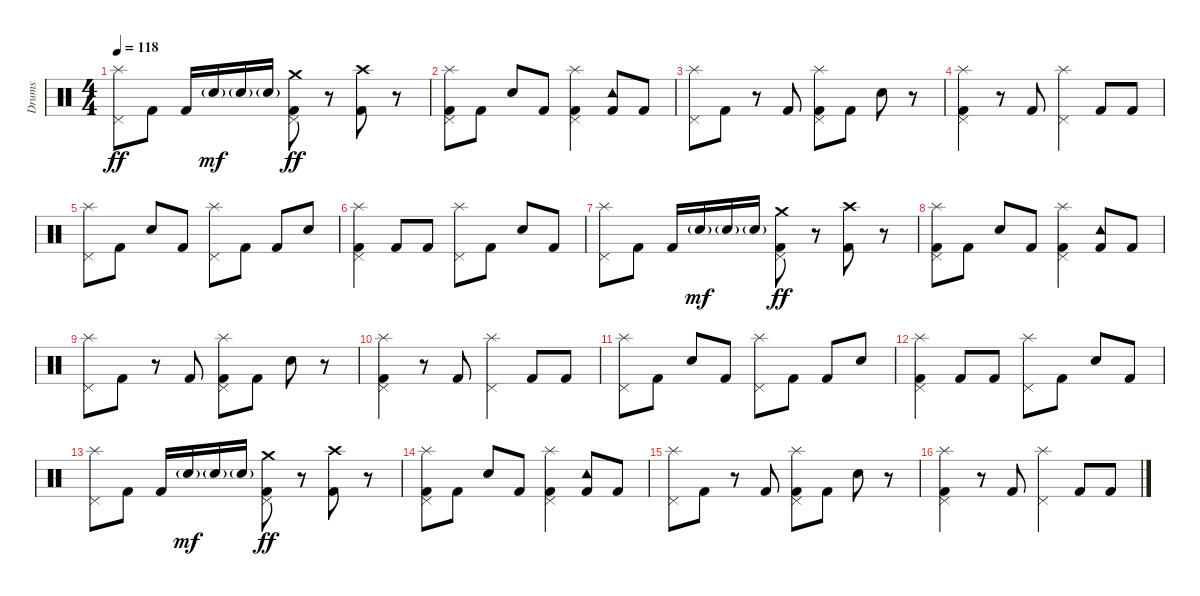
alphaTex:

\track ("Drums" "Drums") {instrument percussion}
\staff {score}
\articulation defaults
\ts (4 4)
\tempo 118
\clef neutral
\ks c
("Splash (hit)" "Pedal Hi-Hat (hit)").8{dy ff} "Kick (hit) 2".8 "Kick (hit) 2".16 "Electric Snare (hit)"{g}.16{dy mf} "Electric Snare (hit)"{g}.16 "Electric Snare (hit)"{g}.16 ("Crash medium (hit)" "Pedal Hi-Hat (hit)" "Kick (hit) 2").8{dy ff} r.8 ("Crash high (hit)" "Kick (hit) 2").8 r.8 |
("Splash (hit)" "Pedal Hi-Hat (hit)" "Kick (hit) 2").8 "Kick (hit) 2".8 "Electric Snare (hit)".8 "Kick (hit) 2".8 ("Splash (hit)" "Pedal Hi-Hat (hit)" "Kick (hit) 2").4 ("Tambourine (hit)" "Kick (hit) 2").8 "Kick (hit) 2".8 |
("Splash (hit)" "Pedal Hi-Hat (hit)").8 "Kick (hit) 2".8 r.8 "Kick (hit) 2".8 ("Splash (hit)" "Pedal Hi-Hat (hit)" "Kick (hit) 2").8 "Kick (hit) 2".8 "Electric Snare (hit)".8 r.8 |
("Splash (hit)" "Pedal Hi-Hat (hit)" "Kick (hit) 2").4 r.8 "Kick (hit) 2".8 ("Splash (hit)" "Pedal Hi-Hat (hit)").4 "Kick (hit) 2".8 "Kick (hit) 2".8 |
("Splash (hit)" "Pedal Hi-Hat (hit)").8 "Kick (hit) 2".8 "Electric Snare (hit)".8 "Kick (hit) 2".8 ("Splash (hit)" "Pedal Hi-Hat (hit)").8 "Kick (hit) 2".8 "Kick (hit) 2".8 "Electric Snare (hit)".8 |
("Splash (hit)" "Pedal Hi-Hat (hit)" "Kick (hit) 2").4 "Kick (hit) 2".8 "Kick (hit) 2".8 ("Splash (hit)" "Pedal Hi-Hat (hit)").8 "Kick (hit) 2".8 "Electric Snare (hit)".8 "Kick (hit) 2".8 |
("Splash (hit)" "Pedal Hi-Hat (hit)").8 "Kick (hit) 2".8 "Kick (hit) 2".16 "Electric Snare (hit)"{g}.16{dy mf} "Electric Snare (hit)"{g}.16 "Electric Snare (hit)"{g}.16 ("Crash medium (hit)" "Pedal Hi-Hat (hit)" "Kick (hit) 2").8{dy ff} r.8 ("Crash high (hit)" "Kick (hit) 2").8 r.8 |
("Splash (hit)" "Pedal Hi-Hat (hit)" "Kick (hit) 2").8 "Kick (hit) 2".8 "Electric Snare (hit)".8 "Kick (hit) 2".8 ("Splash (hit)" "Pedal Hi-Hat (hit)" "Kick (hit) 2").4 ("Tambourine (hit)" "Kick (hit) 2").8 "Kick (hit) 2".8 |
("Splash (hit)" "Pedal Hi-Hat (hit)").8 "Kick (hit) 2".8 r.8 "Kick (hit) 2".8 ("Splash (hit)" "Pedal Hi-Hat (hit)" "Kick (hit) 2").8 "Kick (hit) 2".8 "Electric Snare (hit)".8 r.8 |
("Splash (hit)" "Pedal Hi-Hat (hit)" "Kick (hit) 2").4 r.8 "Kick (hit) 2".8 ("Splash (hit)" "Pedal Hi-Hat (hit)").4 "Kick (hit) 2".8 "Kick (hit) 2".8 |
("Splash (hit)" "Pedal Hi-Hat (hit)").8 "Kick (hit) 2".8 "Electric Snare (hit)".8 "Kick (hit) 2".8 ("Splash (hit)" "Pedal Hi-Hat (hit)").8 "Kick (hit) 2".8 "Kick (hit) 2".8 "Electric Snare (hit)".8 |
("Splash (hit)" "Pedal Hi-Hat (hit)" "Kick (hit) 2").4 "Kick (hit) 2".8 "Kick (hit) 2".8 ("Splash (hit)" "Pedal Hi-Hat (hit)").8 "Kick (hit) 2".8 "Electric Snare (hit)".8 "Kick (hit) 2".8 |
("Splash (hit)" "Pedal Hi-Hat (hit)").8 "Kick (hit) 2".8 "Kick (hit) 2".16 "Electric Snare (hit)"{g}.16{dy mf} "Electric Snare (hit)"{g}.16 "Electric Snare (hit)"{g}.16 ("Crash medium (hit)" "Pedal Hi-Hat (hit)" "Kick (hit) 2").8{dy ff} r.8 ("Crash high (hit)" "Kick (hit) 2").8 r.8 |
("Splash (hit)" "Pedal Hi-Hat (hit)" "Kick (hit) 2").8 "Kick (hit) 2".8 "Electric Snare (hit)".8 "Kick (hit) 2".8 ("Splash (hit)" "Pedal Hi-Hat (hit)" "Kick (hit) 2").4 ("Tambourine (hit)" "Kick (hit) 2").8 "Kick (hit) 2".8 |
("Splash (hit)" "Pedal Hi-Hat (hit)").8 "Kick (hit) 2".8 r.8 "Kick (hit) 2".8 ("Splash (hit)" "Pedal Hi-Hat (hit)" "Kick (hit) 2").8 "Kick (hit) 2".8 "Electric Snare (hit)".8 r.8 |
("Splash (hit)" "Pedal Hi-Hat (hit)" "Kick (hit) 2").4 r.8 "Kick (hit) 2".8 ("Splash (hit)" "Pedal Hi-Hat (hit)").4 "Kick (hit) 2".8 "Kick (hit) 2".8
